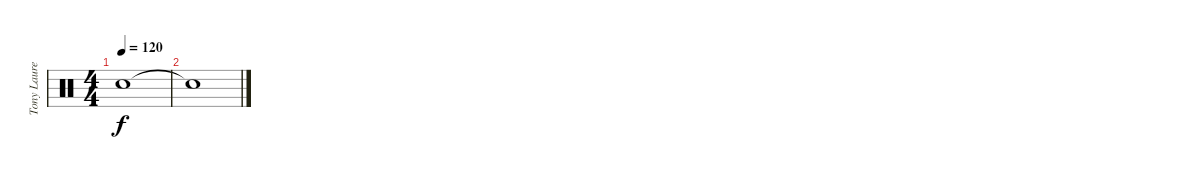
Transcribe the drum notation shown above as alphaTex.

\track ("Tony Laureano" "Tony Laure") {instrument percussion}
\staff {score}
\articulation defaults
\ts (4 4)
\tempo 120
\clef neutral
\ks c "Snare (hit)"{t}.1{dy f}
|
"Snare (hit)"{t}.1
